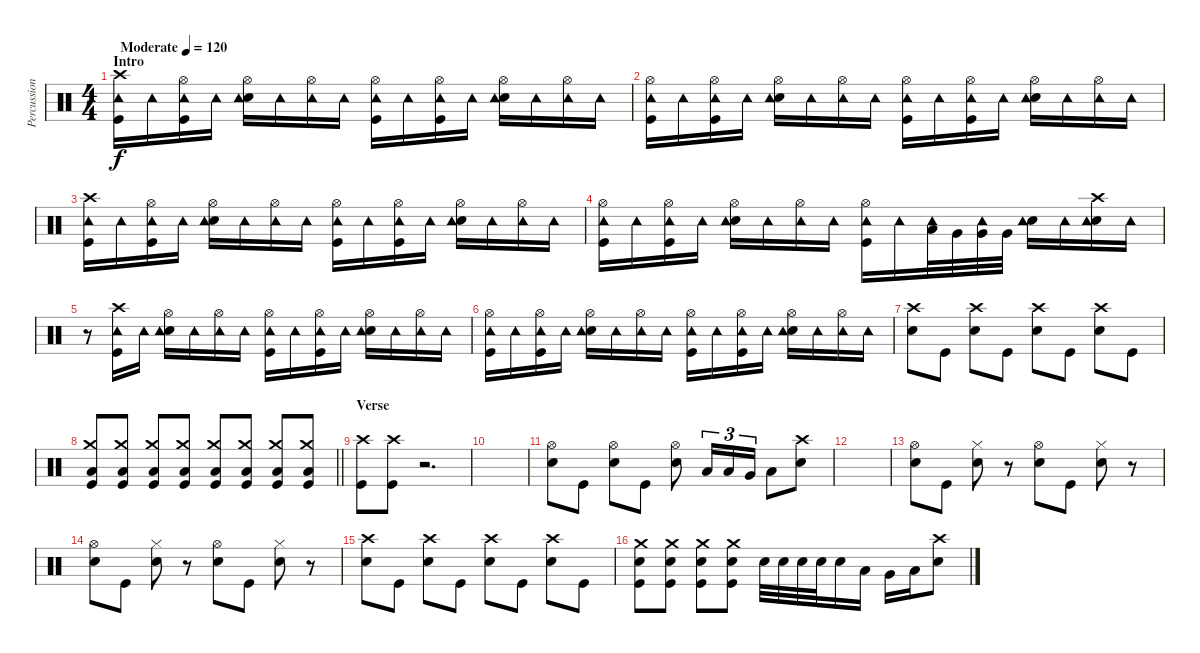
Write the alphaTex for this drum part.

\track ("Percussion" "Percussion") {instrument percussion}
\staff {score}
\articulation defaults
\ts (4 4)
\section ("" "Intro")
\tempo (120 "Moderate")
\clef neutral
\ks c
("Crash high (hit)" "Tambourine (hit)" "Kick (hit)").16{dy f} "Tambourine (hit)".16 ("Hi-Hat (open)" "Tambourine (hit)" "Kick (hit)").16 "Tambourine (hit)".16 ("Hi-Hat (open)" "Electric Snare (hit)" "Tambourine (hit)").16 "Tambourine (hit)".16 ("Hi-Hat (open)" "Tambourine (hit)").16 "Tambourine (hit)".16 ("Hi-Hat (open)" "Tambourine (hit)" "Kick (hit)").16 "Tambourine (hit)".16 ("Hi-Hat (open)" "Tambourine (hit)" "Kick (hit)").16 "Tambourine (hit)".16 ("Hi-Hat (open)" "Electric Snare (hit)" "Tambourine (hit)").16 "Tambourine (hit)".16 ("Hi-Hat (open)" "Tambourine (hit)").16 "Tambourine (hit)".16 |
("Hi-Hat (open)" "Tambourine (hit)" "Kick (hit)").16 "Tambourine (hit)".16 ("Hi-Hat (open)" "Tambourine (hit)" "Kick (hit)").16 "Tambourine (hit)".16 ("Hi-Hat (open)" "Electric Snare (hit)" "Tambourine (hit)").16 "Tambourine (hit)".16 ("Hi-Hat (open)" "Tambourine (hit)").16 "Tambourine (hit)".16 ("Hi-Hat (open)" "Tambourine (hit)" "Kick (hit)").16 "Tambourine (hit)".16 ("Hi-Hat (open)" "Tambourine (hit)" "Kick (hit)").16 "Tambourine (hit)".16 ("Hi-Hat (open)" "Electric Snare (hit)" "Tambourine (hit)").16 "Tambourine (hit)".16 ("Hi-Hat (open)" "Tambourine (hit)").16 "Tambourine (hit)".16 |
("Crash high (hit)" "Tambourine (hit)" "Kick (hit)").16 "Tambourine (hit)".16 ("Hi-Hat (open)" "Tambourine (hit)" "Kick (hit)").16 "Tambourine (hit)".16 ("Hi-Hat (open)" "Electric Snare (hit)" "Tambourine (hit)").16 "Tambourine (hit)".16 ("Hi-Hat (open)" "Tambourine (hit)").16 "Tambourine (hit)".16 ("Hi-Hat (open)" "Tambourine (hit)" "Kick (hit)").16 "Tambourine (hit)".16 ("Hi-Hat (open)" "Tambourine (hit)" "Kick (hit)").16 "Tambourine (hit)".16 ("Hi-Hat (open)" "Electric Snare (hit)" "Tambourine (hit)").16 "Tambourine (hit)".16 ("Hi-Hat (open)" "Tambourine (hit)").16 "Tambourine (hit)".16 |
("Hi-Hat (open)" "Tambourine (hit)" "Kick (hit)").16 "Tambourine (hit)".16 ("Hi-Hat (open)" "Tambourine (hit)" "Kick (hit)").16 "Tambourine (hit)".16 ("Hi-Hat (open)" "Electric Snare (hit)" "Tambourine (hit)").16 "Tambourine (hit)".16 ("Hi-Hat (open)" "Tambourine (hit)").16 "Tambourine (hit)".16 ("Hi-Hat (open)" "Tambourine (hit)" "Kick (hit)").16 "Tambourine (hit)".16 ("Low Tom (hit)" "Tambourine (hit)").32 "Very Low Tom (hit)".32 ("Very Low Tom (hit)" "Tambourine (hit)").32 "Very Low Tom (hit)".32 ("Electric Snare (hit)" "Tambourine (hit)").16 "Tambourine (hit)".16 ("Crash high (hit)" "Electric Snare (hit)" "Tambourine (hit)").16 "Tambourine (hit)".16 |
r.8 ("Crash high (hit)" "Tambourine (hit)" "Kick (hit)").16 "Tambourine (hit)".16 ("Hi-Hat (open)" "Electric Snare (hit)" "Tambourine (hit)").16 "Tambourine (hit)".16 ("Hi-Hat (open)" "Tambourine (hit)").16 "Tambourine (hit)".16 ("Hi-Hat (open)" "Tambourine (hit)" "Kick (hit)").16 "Tambourine (hit)".16 ("Hi-Hat (open)" "Tambourine (hit)" "Kick (hit)").16 "Tambourine (hit)".16 ("Hi-Hat (open)" "Electric Snare (hit)" "Tambourine (hit)").16 "Tambourine (hit)".16 ("Hi-Hat (open)" "Tambourine (hit)").16 "Tambourine (hit)".16 |
("Hi-Hat (open)" "Tambourine (hit)" "Kick (hit)").16 "Tambourine (hit)".16 ("Hi-Hat (open)" "Tambourine (hit)" "Kick (hit)").16 "Tambourine (hit)".16 ("Hi-Hat (open)" "Electric Snare (hit)" "Tambourine (hit)").16 "Tambourine (hit)".16 ("Hi-Hat (open)" "Tambourine (hit)").16 "Tambourine (hit)".16 ("Hi-Hat (open)" "Tambourine (hit)" "Kick (hit)").16 "Tambourine (hit)".16 ("Hi-Hat (open)" "Tambourine (hit)" "Kick (hit)").16 "Tambourine (hit)".16 ("Hi-Hat (open)" "Electric Snare (hit)" "Tambourine (hit)").16 "Tambourine (hit)".16 ("Hi-Hat (open)" "Tambourine (hit)").16 "Tambourine (hit)".16 |
("Crash high (hit)" "Electric Snare (hit)").8 "Kick (hit)".8 ("Crash high (hit)" "Electric Snare (hit)").8 "Kick (hit)".8 ("Crash high (hit)" "Electric Snare (hit)").8 "Kick (hit)".8 ("Crash high (hit)" "Electric Snare (hit)").8 "Kick (hit)".8 |
\barLineRight lightlight
("Crash medium (hit)" "Low Floor Tom (hit)" "Kick (hit)").8{volume 3} ("Crash medium (hit)" "Low Floor Tom (hit)" "Kick (hit)").8{volume 8} ("Crash medium (hit)" "Low Floor Tom (hit)" "Kick (hit)").8 ("Crash medium (hit)" "Low Floor Tom (hit)" "Kick (hit)").8 ("Crash medium (hit)" "Low Floor Tom (hit)" "Kick (hit)").8 ("Crash medium (hit)" "Low Floor Tom (hit)" "Kick (hit)").8 ("Crash medium (hit)" "Low Floor Tom (hit)" "Kick (hit)").8 ("Crash medium (hit)" "Low Floor Tom (hit)" "Kick (hit)").8 |
\section ("" "Verse")
("Crash high (hit)" "Kick (hit)").8 ("Crash high (hit)" "Kick (hit)").8 r.2{d} |
|
("Hi-Hat (open)" "Electric Snare (hit)").8 "Kick (hit)".8 ("Hi-Hat (open)" "Electric Snare (hit)").8 "Kick (hit)".8 ("Hi-Hat (open)" "Electric Snare (hit)").8 "Low Tom (hit)".16{tu (3 2)} "Low Tom (hit)".16{tu (3 2)} "Very Low Tom (hit)".16{tu (3 2)} "Low Floor Tom (hit)".8 ("Crash high (hit)" "Electric Snare (hit)").8 |
|
("Hi-Hat (open)" "Electric Snare (hit)").8 "Kick (hit)".8 ("Hi-Hat (closed)" "Electric Snare (hit)").8 r.8 ("Hi-Hat (open)" "Electric Snare (hit)").8 "Kick (hit)".8 ("Hi-Hat (closed)" "Electric Snare (hit)").8 r.8 |
("Hi-Hat (open)" "Electric Snare (hit)").8 "Kick (hit)".8 ("Hi-Hat (closed)" "Electric Snare (hit)").8 r.8 ("Hi-Hat (open)" "Electric Snare (hit)").8 "Kick (hit)".8 ("Hi-Hat (closed)" "Electric Snare (hit)").8 r.8 |
("Crash high (hit)" "Electric Snare (hit)").8 "Kick (hit)".8 ("Crash high (hit)" "Electric Snare (hit)").8 "Kick (hit)".8 ("Crash high (hit)" "Electric Snare (hit)").8 "Kick (hit)".8 ("Crash high (hit)" "Electric Snare (hit)").8 "Kick (hit)".8 |
("Crash medium (hit)" "Electric Snare (hit)" "Kick (hit)").8{volume 3} ("Crash medium (hit)" "Electric Snare (hit)" "Kick (hit)").8{volume 8} ("Crash medium (hit)" "Electric Snare (hit)" "Kick (hit)").8 ("Crash medium (hit)" "Electric Snare (hit)" "Kick (hit)").8 "Electric Snare (hit)".32 "Electric Snare (hit)".32 "Electric Snare (hit)".32 "Electric Snare (hit)".32 "Electric Snare (hit)".16 "Low Tom (hit)".16 "Very Low Tom (hit)".16 "Low Floor Tom (hit)".16 ("Crash high (hit)" "Electric Snare (hit)").8
